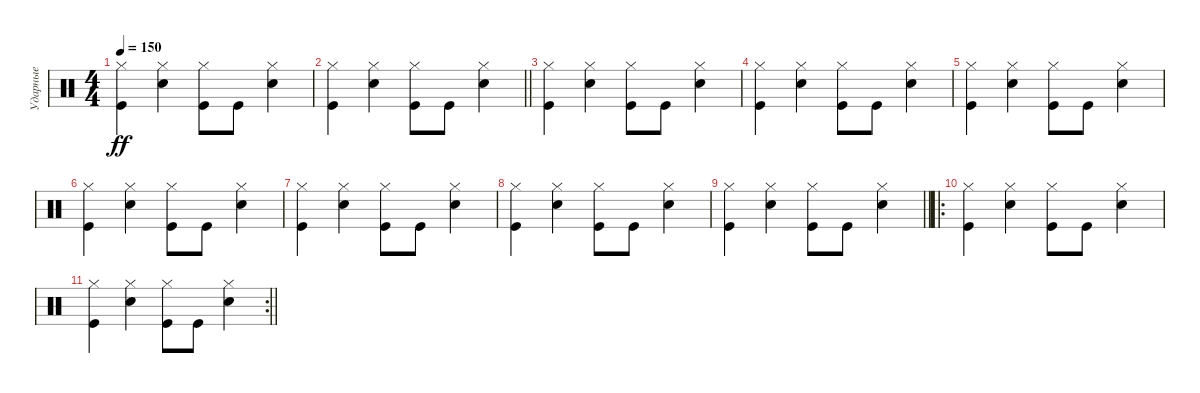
\track ("Ударные" "Ударные") {instrument percussion}
\staff {score}
\articulation defaults
\ts (4 4)
\tempo 150
\clef neutral
\ks c
("Kick (hit)" "Hi-Hat (closed)").4{dy ff} ("Snare (hit) 2" "Hi-Hat (closed)").4 ("Kick (hit)" "Hi-Hat (closed)").8 "Kick (hit)".8 ("Snare (hit) 2" "Hi-Hat (closed)").4 |
\barLineRight lightlight
("Kick (hit)" "Hi-Hat (closed)").4 ("Snare (hit) 2" "Hi-Hat (closed)").4 ("Kick (hit)" "Hi-Hat (closed)").8 "Kick (hit)".8 ("Snare (hit) 2" "Hi-Hat (closed)").4 |
("Kick (hit)" "Hi-Hat (closed)").4 ("Snare (hit) 2" "Hi-Hat (closed)").4 ("Kick (hit)" "Hi-Hat (closed)").8 "Kick (hit)".8 ("Snare (hit) 2" "Hi-Hat (closed)").4 |
("Kick (hit)" "Hi-Hat (closed)").4 ("Snare (hit) 2" "Hi-Hat (closed)").4 ("Kick (hit)" "Hi-Hat (closed)").8 "Kick (hit)".8 ("Snare (hit) 2" "Hi-Hat (closed)").4 |
("Kick (hit)" "Hi-Hat (closed)").4 ("Snare (hit) 2" "Hi-Hat (closed)").4 ("Kick (hit)" "Hi-Hat (closed)").8 "Kick (hit)".8 ("Snare (hit) 2" "Hi-Hat (closed)").4 |
("Kick (hit)" "Hi-Hat (closed)").4 ("Snare (hit) 2" "Hi-Hat (closed)").4 ("Kick (hit)" "Hi-Hat (closed)").8 "Kick (hit)".8 ("Snare (hit) 2" "Hi-Hat (closed)").4 |
("Kick (hit)" "Hi-Hat (closed)").4 ("Snare (hit) 2" "Hi-Hat (closed)").4 ("Kick (hit)" "Hi-Hat (closed)").8 "Kick (hit)".8 ("Snare (hit) 2" "Hi-Hat (closed)").4 |
("Kick (hit)" "Hi-Hat (closed)").4 ("Snare (hit) 2" "Hi-Hat (closed)").4 ("Kick (hit)" "Hi-Hat (closed)").8 "Kick (hit)".8 ("Snare (hit) 2" "Hi-Hat (closed)").4 |
\barLineRight lightlight
("Kick (hit)" "Hi-Hat (closed)").4 ("Snare (hit) 2" "Hi-Hat (closed)").4 ("Kick (hit)" "Hi-Hat (closed)").8 "Kick (hit)".8 ("Snare (hit) 2" "Hi-Hat (closed)").4 |
\ro
("Kick (hit)" "Hi-Hat (closed)").4 ("Snare (hit) 2" "Hi-Hat (closed)").4 ("Kick (hit)" "Hi-Hat (closed)").8 "Kick (hit)".8 ("Snare (hit) 2" "Hi-Hat (closed)").4 |
\rc 2
\barLineRight lightlight
("Kick (hit)" "Hi-Hat (closed)").4 ("Snare (hit) 2" "Hi-Hat (closed)").4 ("Kick (hit)" "Hi-Hat (closed)").8 "Kick (hit)".8 ("Snare (hit) 2" "Hi-Hat (closed)").4
